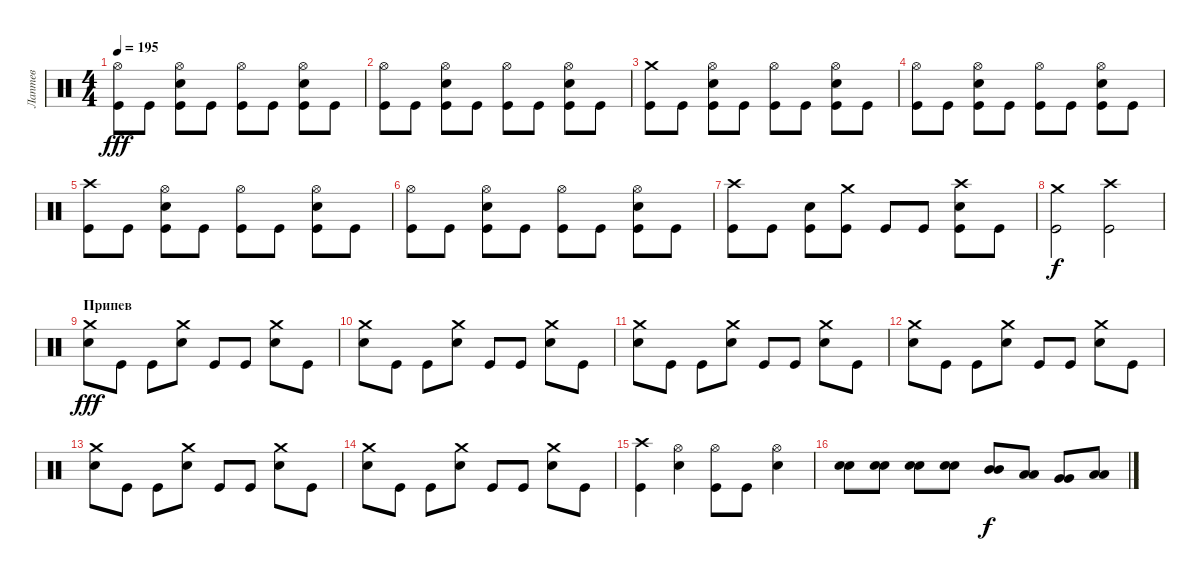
\track ("Лаптев" "Лаптев") {instrument percussion}
\staff {score}
\articulation defaults
\ts (4 4)
\tempo 195
\clef neutral
\ks c
("Hi-Hat (open)" "Kick (hit)").8{dy fff} "Kick (hit)".8 ("Hi-Hat (open)" "Electric Snare (hit)" "Kick (hit)").8 "Kick (hit)".8 ("Hi-Hat (open)" "Kick (hit)").8 "Kick (hit)".8 ("Hi-Hat (open)" "Electric Snare (hit)" "Kick (hit)").8 "Kick (hit)".8 |
("Hi-Hat (open)" "Kick (hit)").8 "Kick (hit)".8 ("Hi-Hat (open)" "Electric Snare (hit)" "Kick (hit)").8 "Kick (hit)".8 ("Hi-Hat (open)" "Kick (hit)").8 "Kick (hit)".8 ("Hi-Hat (open)" "Electric Snare (hit)" "Kick (hit)").8 "Kick (hit)".8 |
("Crash medium (hit)" "Kick (hit)").8 "Kick (hit)".8 ("Hi-Hat (open)" "Electric Snare (hit)" "Kick (hit)").8 "Kick (hit)".8 ("Hi-Hat (open)" "Kick (hit)").8 "Kick (hit)".8 ("Hi-Hat (open)" "Electric Snare (hit)" "Kick (hit)").8 "Kick (hit)".8 |
("Hi-Hat (open)" "Kick (hit)").8 "Kick (hit)".8 ("Hi-Hat (open)" "Electric Snare (hit)" "Kick (hit)").8 "Kick (hit)".8 ("Hi-Hat (open)" "Kick (hit)").8 "Kick (hit)".8 ("Hi-Hat (open)" "Electric Snare (hit)" "Kick (hit)").8 "Kick (hit)".8 |
("Crash high (hit)" "Kick (hit)").8 "Kick (hit)".8 ("Hi-Hat (open)" "Electric Snare (hit)" "Kick (hit)").8 "Kick (hit)".8 ("Hi-Hat (open)" "Kick (hit)").8 "Kick (hit)".8 ("Hi-Hat (open)" "Electric Snare (hit)" "Kick (hit)").8 "Kick (hit)".8 |
("Hi-Hat (open)" "Kick (hit)").8 "Kick (hit)".8 ("Hi-Hat (open)" "Electric Snare (hit)" "Kick (hit)").8 "Kick (hit)".8 ("Hi-Hat (open)" "Kick (hit)").8 "Kick (hit)".8 ("Hi-Hat (open)" "Electric Snare (hit)" "Kick (hit)").8 "Kick (hit)".8 |
("Crash high (hit)" "Kick (hit)").8 "Kick (hit)".8 ("Electric Snare (hit)" "Kick (hit)").8 ("Crash medium (hit)" "Kick (hit)").8 "Kick (hit)".8 "Kick (hit)".8 ("Crash high (hit)" "Electric Snare (hit)" "Kick (hit)").8 "Kick (hit)".8 |
("Crash medium (hit)" "Kick (hit)").2{dy f} ("Crash high (hit)" "Kick (hit)").2 |
\section ("" "Припев")
("Crash medium (hit)" "Electric Snare (hit)").8{dy fff} "Kick (hit)".8 "Kick (hit)".8 ("Crash medium (hit)" "Electric Snare (hit)").8 "Kick (hit)".8 "Kick (hit)".8 ("Crash medium (hit)" "Electric Snare (hit)").8 "Kick (hit)".8 |
("Crash medium (hit)" "Electric Snare (hit)").8 "Kick (hit)".8 "Kick (hit)".8 ("Crash medium (hit)" "Electric Snare (hit)").8 "Kick (hit)".8 "Kick (hit)".8 ("Crash medium (hit)" "Electric Snare (hit)").8 "Kick (hit)".8 |
("Crash medium (hit)" "Electric Snare (hit)").8 "Kick (hit)".8 "Kick (hit)".8 ("Crash medium (hit)" "Electric Snare (hit)").8 "Kick (hit)".8 "Kick (hit)".8 ("Crash medium (hit)" "Electric Snare (hit)").8 "Kick (hit)".8 |
("Crash medium (hit)" "Electric Snare (hit)").8 "Kick (hit)".8 "Kick (hit)".8 ("Crash medium (hit)" "Electric Snare (hit)").8 "Kick (hit)".8 "Kick (hit)".8 ("Crash medium (hit)" "Electric Snare (hit)").8 "Kick (hit)".8 |
("Crash medium (hit)" "Electric Snare (hit)").8 "Kick (hit)".8 "Kick (hit)".8 ("Crash medium (hit)" "Electric Snare (hit)").8 "Kick (hit)".8 "Kick (hit)".8 ("Crash medium (hit)" "Electric Snare (hit)").8 "Kick (hit)".8 |
("Crash medium (hit)" "Electric Snare (hit)").8 "Kick (hit)".8 "Kick (hit)".8 ("Crash medium (hit)" "Electric Snare (hit)").8 "Kick (hit)".8 "Kick (hit)".8 ("Crash medium (hit)" "Electric Snare (hit)").8 "Kick (hit)".8 |
("Crash high (hit)" "Kick (hit)").4 ("Hi-Hat (open)" "Electric Snare (hit)").4 ("Hi-Hat (open)" "Kick (hit)").8 "Kick (hit)".8 ("Hi-Hat (open)" "Electric Snare (hit)").4 |
("Electric Snare (hit)" "Electric Snare (hit)").8 ("Electric Snare (hit)" "Electric Snare (hit)").8 ("Electric Snare (hit)" "Electric Snare (hit)").8 ("Electric Snare (hit)" "Electric Snare (hit)").8 ("Mid Tom (hit)" "Mid Tom (hit)").8{dy f} ("Low Tom (hit)" "Low Tom (hit)").8 ("Very Low Tom (hit)" "Very Low Tom (hit)").8 ("Low Floor Tom (hit)" "Low Floor Tom (hit)").8
